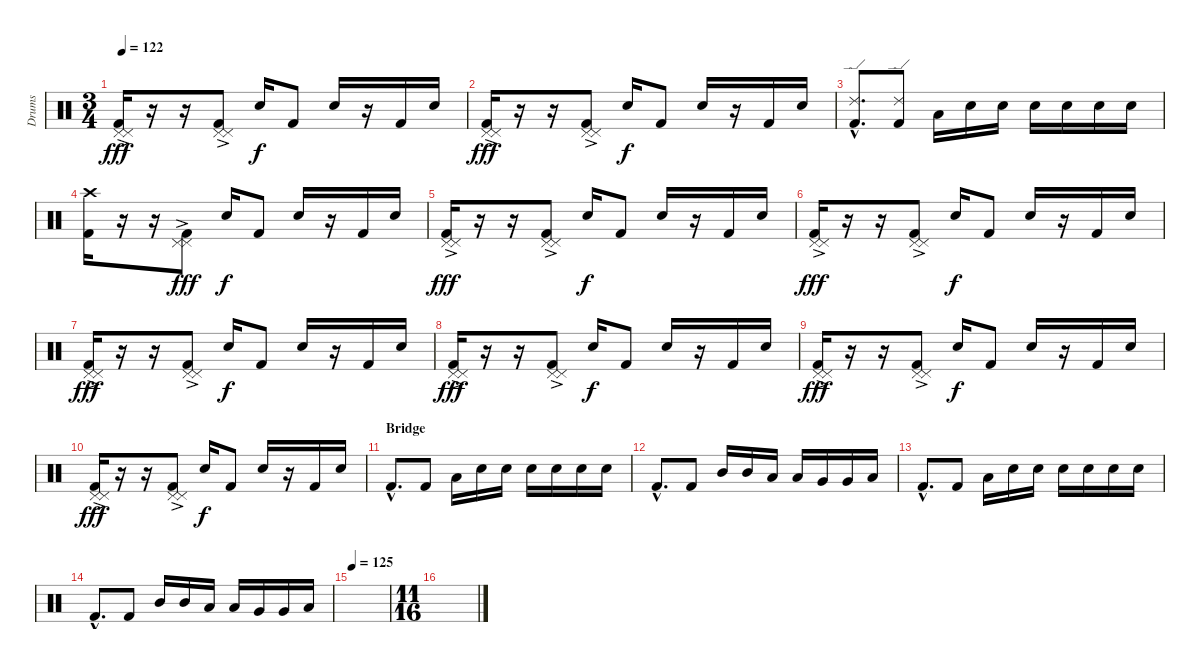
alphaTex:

\track ("Drums" "Drums") {instrument percussion}
\staff {score}
\articulation defaults
\ts (3 4)
\tempo 122
\clef neutral
\ks c
("Pedal Hi-Hat (hit)"{ac} "Pedal Hi-Hat (hit)"{ac} "Kick (hit) 2").16{dy fff} r.16 r.16 ("Pedal Hi-Hat (hit)"{ac} "Pedal Hi-Hat (hit)"{ac} "Kick (hit) 2").8 "Electric Snare (hit)".16{dy f} "Kick (hit) 2".8 "Electric Snare (hit)".16 r.16 "Kick (hit) 2".16 "Electric Snare (hit)".16 |
("Pedal Hi-Hat (hit)"{ac} "Pedal Hi-Hat (hit)"{ac} "Kick (hit) 2").16{dy fff} r.16 r.16 ("Pedal Hi-Hat (hit)"{ac} "Pedal Hi-Hat (hit)"{ac} "Kick (hit) 2").8 "Electric Snare (hit)".16{dy f} "Kick (hit) 2".8 "Electric Snare (hit)".16 r.16 "Kick (hit) 2".16 "Electric Snare (hit)".16 |
("Ride (edge) 2"{hac} "Kick (hit) 2"{hac}).8{d} ("Ride (edge) 2" "Kick (hit) 2").8 "Low Floor Tom (hit)".16 "Electric Snare (hit)".16 "Electric Snare (hit)".16 "Electric Snare (hit)".16 "Electric Snare (hit)".16 "Electric Snare (hit)".16 "Electric Snare (hit)".16 |
("Crash high (hit)" "Kick (hit) 2").16 r.16 r.16 ("Pedal Hi-Hat (hit)"{ac} "Pedal Hi-Hat (hit)"{ac} "Kick (hit) 2").8{dy fff} "Electric Snare (hit)".16{dy f} "Kick (hit) 2".8 "Electric Snare (hit)".16 r.16 "Kick (hit) 2".16 "Electric Snare (hit)".16 |
("Pedal Hi-Hat (hit)"{ac} "Pedal Hi-Hat (hit)"{ac} "Kick (hit) 2").16{dy fff} r.16 r.16 ("Pedal Hi-Hat (hit)"{ac} "Pedal Hi-Hat (hit)"{ac} "Kick (hit) 2").8 "Electric Snare (hit)".16{dy f} "Kick (hit) 2".8 "Electric Snare (hit)".16 r.16 "Kick (hit) 2".16 "Electric Snare (hit)".16 |
("Pedal Hi-Hat (hit)"{ac} "Pedal Hi-Hat (hit)"{ac} "Kick (hit) 2").16{dy fff} r.16 r.16 ("Pedal Hi-Hat (hit)"{ac} "Pedal Hi-Hat (hit)"{ac} "Kick (hit) 2").8 "Electric Snare (hit)".16{dy f} "Kick (hit) 2".8 "Electric Snare (hit)".16 r.16 "Kick (hit) 2".16 "Electric Snare (hit)".16 |
("Pedal Hi-Hat (hit)"{ac} "Pedal Hi-Hat (hit)"{ac} "Kick (hit) 2").16{dy fff} r.16 r.16 ("Pedal Hi-Hat (hit)"{ac} "Pedal Hi-Hat (hit)"{ac} "Kick (hit) 2").8 "Electric Snare (hit)".16{dy f} "Kick (hit) 2".8 "Electric Snare (hit)".16 r.16 "Kick (hit) 2".16 "Electric Snare (hit)".16 |
("Pedal Hi-Hat (hit)"{ac} "Pedal Hi-Hat (hit)"{ac} "Kick (hit) 2").16{dy fff} r.16 r.16 ("Pedal Hi-Hat (hit)"{ac} "Pedal Hi-Hat (hit)"{ac} "Kick (hit) 2").8 "Electric Snare (hit)".16{dy f} "Kick (hit) 2".8 "Electric Snare (hit)".16 r.16 "Kick (hit) 2".16 "Electric Snare (hit)".16 |
("Pedal Hi-Hat (hit)"{ac} "Pedal Hi-Hat (hit)"{ac} "Kick (hit) 2").16{dy fff} r.16 r.16 ("Pedal Hi-Hat (hit)"{ac} "Pedal Hi-Hat (hit)"{ac} "Kick (hit) 2").8 "Electric Snare (hit)".16{dy f} "Kick (hit) 2".8 "Electric Snare (hit)".16 r.16 "Kick (hit) 2".16 "Electric Snare (hit)".16 |
("Pedal Hi-Hat (hit)"{ac} "Pedal Hi-Hat (hit)"{ac} "Kick (hit) 2").16{dy fff} r.16 r.16 ("Pedal Hi-Hat (hit)"{ac} "Pedal Hi-Hat (hit)"{ac} "Kick (hit) 2").8 "Electric Snare (hit)".16{dy f} "Kick (hit) 2".8 "Electric Snare (hit)".16 r.16 "Kick (hit) 2".16 "Electric Snare (hit)".16 |
\section ("" "Bridge")
"Kick (hit) 2"{hac}.8{d} "Kick (hit) 2".8 "Low Floor Tom (hit)".16 "Electric Snare (hit)".16 "Electric Snare (hit)".16 "Electric Snare (hit)".16 "Electric Snare (hit)".16 "Electric Snare (hit)".16 "Electric Snare (hit)".16 |
"Kick (hit) 2"{hac}.8{d} "Kick (hit) 2".8 "Mid Tom (hit)".16 "Mid Tom (hit)".16 "Low Tom (hit)".16 "Low Tom (hit)".16 "Very Low Tom (hit)".16 "Very Low Tom (hit)".16 "Low Floor Tom (hit)".16 |
"Kick (hit) 2"{hac}.8{d} "Kick (hit) 2".8 "Low Floor Tom (hit)".16 "Electric Snare (hit)".16 "Electric Snare (hit)".16 "Electric Snare (hit)".16 "Electric Snare (hit)".16 "Electric Snare (hit)".16 "Electric Snare (hit)".16 |
"Kick (hit) 2"{hac}.8{d} "Kick (hit) 2".8 "Mid Tom (hit)".16 "Mid Tom (hit)".16 "Low Tom (hit)".16 "Low Tom (hit)".16 "Very Low Tom (hit)".16 "Very Low Tom (hit)".16 "Low Floor Tom (hit)".16 |
\tempo 125
|
\ts (11 16)
